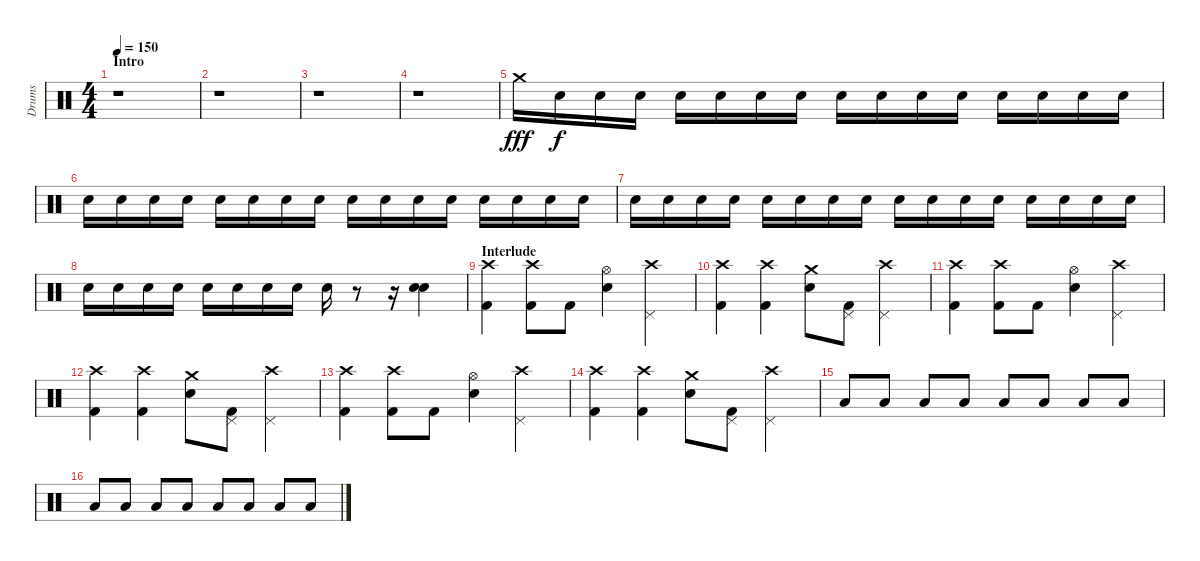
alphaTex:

\track ("Drums" "Drums") {instrument percussion}
\staff {score}
\articulation defaults
\ts (4 4)
\section ("" "Intro")
\tempo 150
\clef neutral
\ks c
r.1{dy fff} |
r.1 |
r.1 |
r.1 |
"Crash medium (hit)".16{volume 4} "Electric Snare (hit)".16{dy f volume 14} "Electric Snare (hit)".16 "Electric Snare (hit)".16 "Electric Snare (hit)".16 "Electric Snare (hit)".16 "Electric Snare (hit)".16 "Electric Snare (hit)".16 "Electric Snare (hit)".16 "Electric Snare (hit)".16 "Electric Snare (hit)".16 "Electric Snare (hit)".16 "Electric Snare (hit)".16 "Electric Snare (hit)".16 "Electric Snare (hit)".16 "Electric Snare (hit)".16 |
"Electric Snare (hit)".16 "Electric Snare (hit)".16 "Electric Snare (hit)".16 "Electric Snare (hit)".16 "Electric Snare (hit)".16 "Electric Snare (hit)".16 "Electric Snare (hit)".16 "Electric Snare (hit)".16 "Electric Snare (hit)".16 "Electric Snare (hit)".16 "Electric Snare (hit)".16 "Electric Snare (hit)".16 "Electric Snare (hit)".16 "Electric Snare (hit)".16 "Electric Snare (hit)".16 "Electric Snare (hit)".16 |
"Electric Snare (hit)".16 "Electric Snare (hit)".16 "Electric Snare (hit)".16 "Electric Snare (hit)".16 "Electric Snare (hit)".16 "Electric Snare (hit)".16 "Electric Snare (hit)".16 "Electric Snare (hit)".16 "Electric Snare (hit)".16 "Electric Snare (hit)".16 "Electric Snare (hit)".16 "Electric Snare (hit)".16 "Electric Snare (hit)".16 "Electric Snare (hit)".16 "Electric Snare (hit)".16 "Electric Snare (hit)".16 |
"Electric Snare (hit)".16 "Electric Snare (hit)".16 "Electric Snare (hit)".16 "Electric Snare (hit)".16 "Electric Snare (hit)".16 "Electric Snare (hit)".16 "Electric Snare (hit)".16 "Electric Snare (hit)".16 "Electric Snare (hit)".16 r.8 r.16 ("Electric Snare (hit)" "Electric Snare (hit)").4 |
\section ("" "Interlude")
("Kick (hit) 2" "Crash high (hit)").4 ("Kick (hit) 2" "Crash high (hit)").8 "Kick (hit) 2".8 ("Electric Snare (hit)" "Hi-Hat (open)").4 ("Crash high (hit)" "Pedal Hi-Hat (hit)").4 |
("Kick (hit) 2" "Crash high (hit)").4 ("Kick (hit) 2" "Crash high (hit)").4 ("Electric Snare (hit)" "Crash medium (hit)").8 ("Kick (hit) 2" "Pedal Hi-Hat (hit)").8 ("Crash high (hit)" "Pedal Hi-Hat (hit)").4 |
("Kick (hit) 2" "Crash high (hit)").4 ("Kick (hit) 2" "Crash high (hit)").8 "Kick (hit) 2".8 ("Electric Snare (hit)" "Hi-Hat (open)").4 ("Crash high (hit)" "Pedal Hi-Hat (hit)").4 |
("Kick (hit) 2" "Crash high (hit)").4 ("Kick (hit) 2" "Crash high (hit)").4 ("Electric Snare (hit)" "Crash medium (hit)").8 ("Kick (hit) 2" "Pedal Hi-Hat (hit)").8 ("Crash high (hit)" "Pedal Hi-Hat (hit)").4 |
("Kick (hit) 2" "Crash high (hit)").4 ("Kick (hit) 2" "Crash high (hit)").8 "Kick (hit) 2".8 ("Electric Snare (hit)" "Hi-Hat (open)").4 ("Crash high (hit)" "Pedal Hi-Hat (hit)").4 |
("Kick (hit) 2" "Crash high (hit)").4 ("Kick (hit) 2" "Crash high (hit)").4 ("Electric Snare (hit)" "Crash medium (hit)").8 ("Kick (hit) 2" "Pedal Hi-Hat (hit)").8 ("Crash high (hit)" "Pedal Hi-Hat (hit)").4 |
"Low Floor Tom (hit)".8 "Low Floor Tom (hit)".8 "Low Floor Tom (hit)".8 "Low Floor Tom (hit)".8 "Low Floor Tom (hit)".8 "Low Floor Tom (hit)".8 "Low Floor Tom (hit)".8 "Low Floor Tom (hit)".8 |
"Low Floor Tom (hit)".8 "Low Floor Tom (hit)".8 "Low Floor Tom (hit)".8 "Low Floor Tom (hit)".8 "Low Floor Tom (hit)".8 "Low Floor Tom (hit)".8 "Low Floor Tom (hit)".8 "Low Floor Tom (hit)".8
